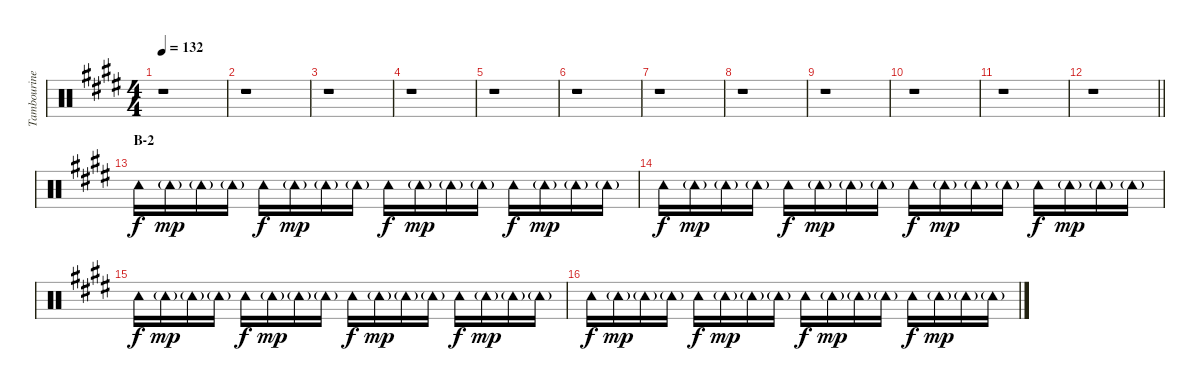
\track ("Tambourine" "Tambourine") {instrument percussion}
\staff {score}
\articulation defaults
\ts (4 4)
\tempo 132
\clef neutral
\ks e
r.1{dy f} |
r.1 |
r.1 |
r.1 |
r.1 |
r.1 |
r.1 |
r.1 |
r.1 |
r.1 |
r.1 |
\barLineRight lightlight
r.1 |
\section ("" "B-2")
"Tambourine (hit)".16 "Tambourine (hit)"{g}.16{dy mp} "Tambourine (hit)"{g}.16 "Tambourine (hit)"{g}.16 "Tambourine (hit)".16{dy f} "Tambourine (hit)"{g}.16{dy mp} "Tambourine (hit)"{g}.16 "Tambourine (hit)"{g}.16 "Tambourine (hit)".16{dy f} "Tambourine (hit)"{g}.16{dy mp} "Tambourine (hit)"{g}.16 "Tambourine (hit)"{g}.16 "Tambourine (hit)".16{dy f} "Tambourine (hit)"{g}.16{dy mp} "Tambourine (hit)"{g}.16 "Tambourine (hit)"{g}.16 |
"Tambourine (hit)".16{dy f} "Tambourine (hit)"{g}.16{dy mp} "Tambourine (hit)"{g}.16 "Tambourine (hit)"{g}.16 "Tambourine (hit)".16{dy f} "Tambourine (hit)"{g}.16{dy mp} "Tambourine (hit)"{g}.16 "Tambourine (hit)"{g}.16 "Tambourine (hit)".16{dy f} "Tambourine (hit)"{g}.16{dy mp} "Tambourine (hit)"{g}.16 "Tambourine (hit)"{g}.16 "Tambourine (hit)".16{dy f} "Tambourine (hit)"{g}.16{dy mp} "Tambourine (hit)"{g}.16 "Tambourine (hit)"{g}.16 |
"Tambourine (hit)".16{dy f} "Tambourine (hit)"{g}.16{dy mp} "Tambourine (hit)"{g}.16 "Tambourine (hit)"{g}.16 "Tambourine (hit)".16{dy f} "Tambourine (hit)"{g}.16{dy mp} "Tambourine (hit)"{g}.16 "Tambourine (hit)"{g}.16 "Tambourine (hit)".16{dy f} "Tambourine (hit)"{g}.16{dy mp} "Tambourine (hit)"{g}.16 "Tambourine (hit)"{g}.16 "Tambourine (hit)".16{dy f} "Tambourine (hit)"{g}.16{dy mp} "Tambourine (hit)"{g}.16 "Tambourine (hit)"{g}.16 |
"Tambourine (hit)".16{dy f} "Tambourine (hit)"{g}.16{dy mp} "Tambourine (hit)"{g}.16 "Tambourine (hit)"{g}.16 "Tambourine (hit)".16{dy f} "Tambourine (hit)"{g}.16{dy mp} "Tambourine (hit)"{g}.16 "Tambourine (hit)"{g}.16 "Tambourine (hit)".16{dy f} "Tambourine (hit)"{g}.16{dy mp} "Tambourine (hit)"{g}.16 "Tambourine (hit)"{g}.16 "Tambourine (hit)".16{dy f} "Tambourine (hit)"{g}.16{dy mp} "Tambourine (hit)"{g}.16 "Tambourine (hit)"{g}.16
